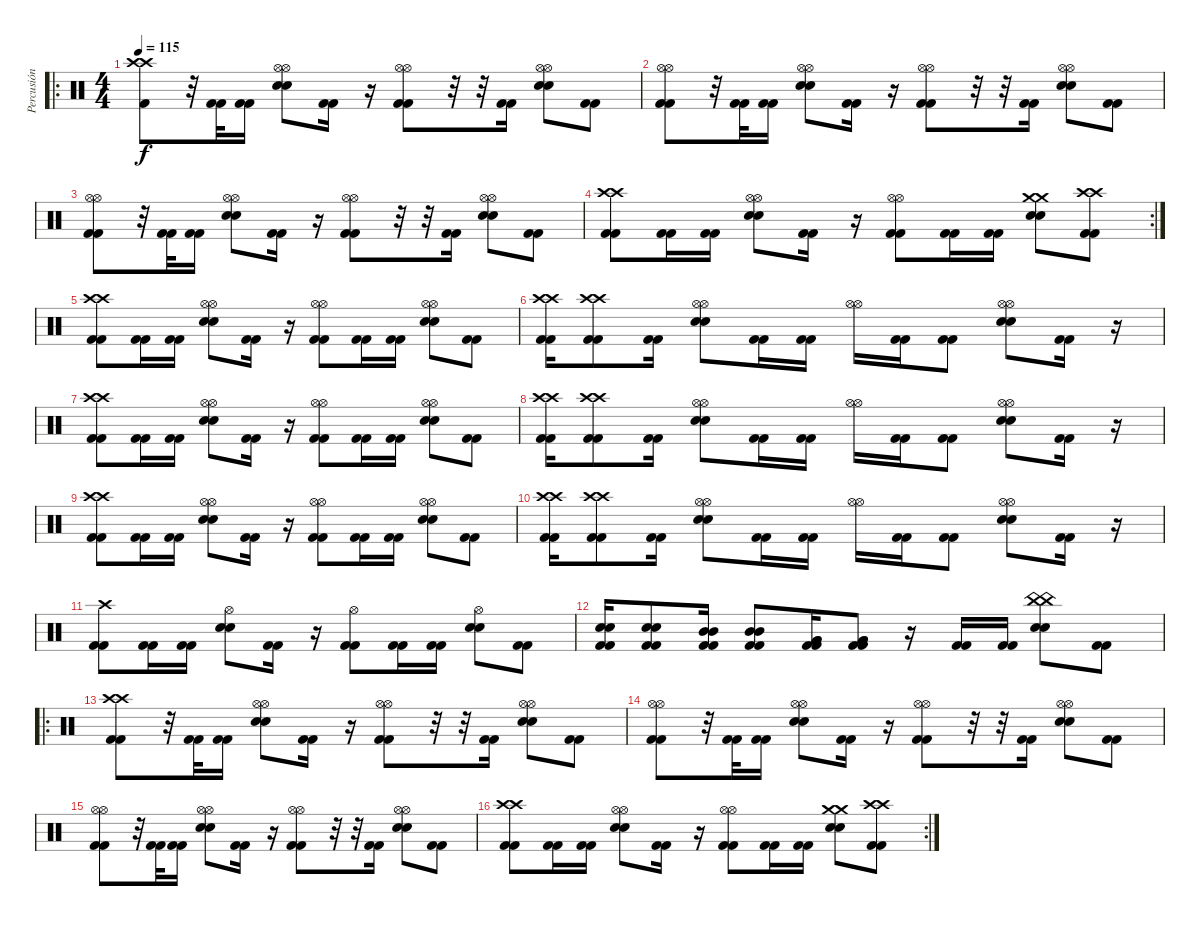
\track ("Percusión" "Percusión") {instrument percussion}
\staff {score}
\articulation defaults
\ro
\ts (4 4)
\tempo 115
\clef neutral
\ks c
("Crash high (hit)" "Crash high (hit)" "Kick (hit) 2").8{dy f} r.32 ("Kick (hit) 2" "Kick (hit) 2").32 ("Kick (hit) 2" "Kick (hit) 2").16 ("Hi-Hat (open)" "Hi-Hat (open)" "Electric Snare (hit)" "Electric Snare (hit)").8 ("Kick (hit) 2" "Kick (hit) 2").16 r.16 ("Hi-Hat (open)" "Hi-Hat (open)" "Kick (hit) 2" "Kick (hit) 2").8 r.32 r.32 ("Kick (hit) 2" "Kick (hit) 2").16 ("Hi-Hat (open)" "Hi-Hat (open)" "Electric Snare (hit)" "Electric Snare (hit)").8 ("Kick (hit) 2" "Kick (hit) 2").8 |
("Hi-Hat (open)" "Hi-Hat (open)" "Kick (hit) 2" "Kick (hit) 2").8 r.32 ("Kick (hit) 2" "Kick (hit) 2").32 ("Kick (hit) 2" "Kick (hit) 2").16 ("Hi-Hat (open)" "Hi-Hat (open)" "Electric Snare (hit)" "Electric Snare (hit)").8 ("Kick (hit) 2" "Kick (hit) 2").16 r.16 ("Hi-Hat (open)" "Hi-Hat (open)" "Kick (hit) 2" "Kick (hit) 2").8 r.32 r.32 ("Kick (hit) 2" "Kick (hit) 2").16 ("Hi-Hat (open)" "Hi-Hat (open)" "Electric Snare (hit)" "Electric Snare (hit)").8 ("Kick (hit) 2" "Kick (hit) 2").8 |
("Hi-Hat (open)" "Hi-Hat (open)" "Kick (hit) 2" "Kick (hit) 2").8 r.32 ("Kick (hit) 2" "Kick (hit) 2").32 ("Kick (hit) 2" "Kick (hit) 2").16 ("Hi-Hat (open)" "Hi-Hat (open)" "Electric Snare (hit)" "Electric Snare (hit)").8 ("Kick (hit) 2" "Kick (hit) 2").16 r.16 ("Hi-Hat (open)" "Hi-Hat (open)" "Kick (hit) 2" "Kick (hit) 2").8 r.32 r.32 ("Kick (hit) 2" "Kick (hit) 2").16 ("Hi-Hat (open)" "Hi-Hat (open)" "Electric Snare (hit)" "Electric Snare (hit)").8 ("Kick (hit) 2" "Kick (hit) 2").8 |
\rc 2
("Crash high (hit)" "Crash high (hit)" "Kick (hit) 2" "Kick (hit) 2").8 ("Kick (hit) 2" "Kick (hit) 2").16 ("Kick (hit) 2" "Kick (hit) 2").16 ("Hi-Hat (open)" "Hi-Hat (open)" "Electric Snare (hit)" "Electric Snare (hit)").8 ("Kick (hit) 2" "Kick (hit) 2").16 r.16 ("Hi-Hat (open)" "Hi-Hat (open)" "Kick (hit) 2" "Kick (hit) 2").8 ("Kick (hit) 2" "Kick (hit) 2").16 ("Kick (hit) 2" "Kick (hit) 2").16 ("Crash medium (hit)" "Crash medium (hit)" "Electric Snare (hit)" "Electric Snare (hit)").8 ("Crash high (hit)" "Crash high (hit)" "Kick (hit) 2" "Kick (hit) 2").8 |
("Crash high (hit)" "Crash high (hit)" "Kick (hit) 2" "Kick (hit) 2").8 ("Kick (hit) 2" "Kick (hit) 2").16 ("Kick (hit) 2" "Kick (hit) 2").16 ("Hi-Hat (open)" "Hi-Hat (open)" "Electric Snare (hit)" "Electric Snare (hit)").8 ("Kick (hit) 2" "Kick (hit) 2").16 r.16 ("Hi-Hat (open)" "Hi-Hat (open)" "Kick (hit) 2" "Kick (hit) 2").8 ("Kick (hit) 2" "Kick (hit) 2").16 ("Kick (hit) 2" "Kick (hit) 2").16 ("Hi-Hat (open)" "Hi-Hat (open)" "Electric Snare (hit)" "Electric Snare (hit)").8 ("Kick (hit) 2" "Kick (hit) 2").8 |
("Kick (hit) 2" "Crash high (hit)" "Crash high (hit)" "Kick (hit) 2").16 ("Kick (hit) 2" "Crash high (hit)" "Crash high (hit)" "Kick (hit) 2").8 ("Kick (hit) 2" "Kick (hit) 2").16 ("Hi-Hat (open)" "Hi-Hat (open)" "Electric Snare (hit)" "Electric Snare (hit)").8 ("Kick (hit) 2" "Kick (hit) 2").16 ("Kick (hit) 2" "Kick (hit) 2").16 ("Hi-Hat (open)" "Hi-Hat (open)").16 ("Kick (hit) 2" "Kick (hit) 2").16 ("Kick (hit) 2" "Kick (hit) 2").8 ("Hi-Hat (open)" "Hi-Hat (open)" "Electric Snare (hit)" "Electric Snare (hit)").8 ("Kick (hit) 2" "Kick (hit) 2").16 r.16 |
("Crash high (hit)" "Crash high (hit)" "Kick (hit) 2" "Kick (hit) 2").8 ("Kick (hit) 2" "Kick (hit) 2").16 ("Kick (hit) 2" "Kick (hit) 2").16 ("Hi-Hat (open)" "Hi-Hat (open)" "Electric Snare (hit)" "Electric Snare (hit)").8 ("Kick (hit) 2" "Kick (hit) 2").16 r.16 ("Hi-Hat (open)" "Hi-Hat (open)" "Kick (hit) 2" "Kick (hit) 2").8 ("Kick (hit) 2" "Kick (hit) 2").16 ("Kick (hit) 2" "Kick (hit) 2").16 ("Hi-Hat (open)" "Hi-Hat (open)" "Electric Snare (hit)" "Electric Snare (hit)").8 ("Kick (hit) 2" "Kick (hit) 2").8 |
("Kick (hit) 2" "Crash high (hit)" "Crash high (hit)" "Kick (hit) 2").16 ("Kick (hit) 2" "Crash high (hit)" "Crash high (hit)" "Kick (hit) 2").8 ("Kick (hit) 2" "Kick (hit) 2").16 ("Hi-Hat (open)" "Hi-Hat (open)" "Electric Snare (hit)" "Electric Snare (hit)").8 ("Kick (hit) 2" "Kick (hit) 2").16 ("Kick (hit) 2" "Kick (hit) 2").16 ("Hi-Hat (open)" "Hi-Hat (open)").16 ("Kick (hit) 2" "Kick (hit) 2").16 ("Kick (hit) 2" "Kick (hit) 2").8 ("Hi-Hat (open)" "Hi-Hat (open)" "Electric Snare (hit)" "Electric Snare (hit)").8 ("Kick (hit) 2" "Kick (hit) 2").16 r.16 |
("Crash high (hit)" "Crash high (hit)" "Kick (hit) 2" "Kick (hit) 2").8 ("Kick (hit) 2" "Kick (hit) 2").16 ("Kick (hit) 2" "Kick (hit) 2").16 ("Hi-Hat (open)" "Hi-Hat (open)" "Electric Snare (hit)" "Electric Snare (hit)").8 ("Kick (hit) 2" "Kick (hit) 2").16 r.16 ("Hi-Hat (open)" "Hi-Hat (open)" "Kick (hit) 2" "Kick (hit) 2").8 ("Kick (hit) 2" "Kick (hit) 2").16 ("Kick (hit) 2" "Kick (hit) 2").16 ("Hi-Hat (open)" "Hi-Hat (open)" "Electric Snare (hit)" "Electric Snare (hit)").8 ("Kick (hit) 2" "Kick (hit) 2").8 |
("Kick (hit) 2" "Crash high (hit)" "Crash high (hit)" "Kick (hit) 2").16 ("Kick (hit) 2" "Crash high (hit)" "Crash high (hit)" "Kick (hit) 2").8 ("Kick (hit) 2" "Kick (hit) 2").16 ("Hi-Hat (open)" "Hi-Hat (open)" "Electric Snare (hit)" "Electric Snare (hit)").8 ("Kick (hit) 2" "Kick (hit) 2").16 ("Kick (hit) 2" "Kick (hit) 2").16 ("Hi-Hat (open)" "Hi-Hat (open)").16 ("Kick (hit) 2" "Kick (hit) 2").16 ("Kick (hit) 2" "Kick (hit) 2").8 ("Hi-Hat (open)" "Hi-Hat (open)" "Electric Snare (hit)" "Electric Snare (hit)").8 ("Kick (hit) 2" "Kick (hit) 2").16 r.16 |
("Crash high (hit)" "Kick (hit) 2" "Kick (hit) 2").8 ("Kick (hit) 2" "Kick (hit) 2").16 ("Kick (hit) 2" "Kick (hit) 2").16 ("Hi-Hat (open)" "Electric Snare (hit)" "Electric Snare (hit)").8 ("Kick (hit) 2" "Kick (hit) 2").16 r.16 ("Hi-Hat (open)" "Kick (hit) 2" "Kick (hit) 2").8 ("Kick (hit) 2" "Kick (hit) 2").16 ("Kick (hit) 2" "Kick (hit) 2").16 ("Hi-Hat (open)" "Electric Snare (hit)" "Electric Snare (hit)").8 ("Kick (hit) 2" "Kick (hit) 2").8 |
("Kick (hit) 2" "Electric Snare (hit)" "Electric Snare (hit)" "Kick (hit) 2").16 ("Kick (hit) 2" "Electric Snare (hit)" "Electric Snare (hit)" "Kick (hit) 2").8 ("Kick (hit) 2" "Mid Tom (hit)" "Mid Tom (hit)" "Kick (hit) 2").16 ("Kick (hit) 2" "Mid Tom (hit)" "Mid Tom (hit)" "Kick (hit) 2").8 ("Kick (hit) 2" "Very Low Tom (hit)" "Very Low Tom (hit)" "Kick (hit) 2").16 ("Kick (hit) 2" "Very Low Tom (hit)" "Very Low Tom (hit)" "Kick (hit) 2").8 r.16 ("Kick (hit) 2" "Kick (hit) 2").16 ("Kick (hit) 2" "Kick (hit) 2").16 ("China (hit)" "China (hit)" "Electric Snare (hit)" "Electric Snare (hit)").8 ("Kick (hit) 2" "Kick (hit) 2").8 |
\ro
("Crash high (hit)" "Crash high (hit)" "Kick (hit) 2" "Kick (hit) 2").8 r.32 ("Kick (hit) 2" "Kick (hit) 2").32 ("Kick (hit) 2" "Kick (hit) 2").16 ("Hi-Hat (open)" "Hi-Hat (open)" "Electric Snare (hit)" "Electric Snare (hit)").8 ("Kick (hit) 2" "Kick (hit) 2").16 r.16 ("Hi-Hat (open)" "Hi-Hat (open)" "Kick (hit) 2" "Kick (hit) 2").8 r.32 r.32 ("Kick (hit) 2" "Kick (hit) 2").16 ("Hi-Hat (open)" "Hi-Hat (open)" "Electric Snare (hit)" "Electric Snare (hit)").8 ("Kick (hit) 2" "Kick (hit) 2").8 |
("Hi-Hat (open)" "Hi-Hat (open)" "Kick (hit) 2" "Kick (hit) 2").8 r.32 ("Kick (hit) 2" "Kick (hit) 2").32 ("Kick (hit) 2" "Kick (hit) 2").16 ("Hi-Hat (open)" "Hi-Hat (open)" "Electric Snare (hit)" "Electric Snare (hit)").8 ("Kick (hit) 2" "Kick (hit) 2").16 r.16 ("Hi-Hat (open)" "Hi-Hat (open)" "Kick (hit) 2" "Kick (hit) 2").8 r.32 r.32 ("Kick (hit) 2" "Kick (hit) 2").16 ("Hi-Hat (open)" "Hi-Hat (open)" "Electric Snare (hit)" "Electric Snare (hit)").8 ("Kick (hit) 2" "Kick (hit) 2").8 |
("Hi-Hat (open)" "Hi-Hat (open)" "Kick (hit) 2" "Kick (hit) 2").8 r.32 ("Kick (hit) 2" "Kick (hit) 2").32 ("Kick (hit) 2" "Kick (hit) 2").16 ("Hi-Hat (open)" "Hi-Hat (open)" "Electric Snare (hit)" "Electric Snare (hit)").8 ("Kick (hit) 2" "Kick (hit) 2").16 r.16 ("Hi-Hat (open)" "Hi-Hat (open)" "Kick (hit) 2" "Kick (hit) 2").8 r.32 r.32 ("Kick (hit) 2" "Kick (hit) 2").16 ("Hi-Hat (open)" "Hi-Hat (open)" "Electric Snare (hit)" "Electric Snare (hit)").8 ("Kick (hit) 2" "Kick (hit) 2").8 |
\rc 2
("Crash high (hit)" "Crash high (hit)" "Kick (hit) 2" "Kick (hit) 2").8 ("Kick (hit) 2" "Kick (hit) 2").16 ("Kick (hit) 2" "Kick (hit) 2").16 ("Hi-Hat (open)" "Hi-Hat (open)" "Electric Snare (hit)" "Electric Snare (hit)").8 ("Kick (hit) 2" "Kick (hit) 2").16 r.16 ("Hi-Hat (open)" "Hi-Hat (open)" "Kick (hit) 2" "Kick (hit) 2").8 ("Kick (hit) 2" "Kick (hit) 2").16 ("Kick (hit) 2" "Kick (hit) 2").16 ("Crash medium (hit)" "Crash medium (hit)" "Electric Snare (hit)" "Electric Snare (hit)").8 ("Crash high (hit)" "Crash high (hit)" "Kick (hit) 2" "Kick (hit) 2").8
